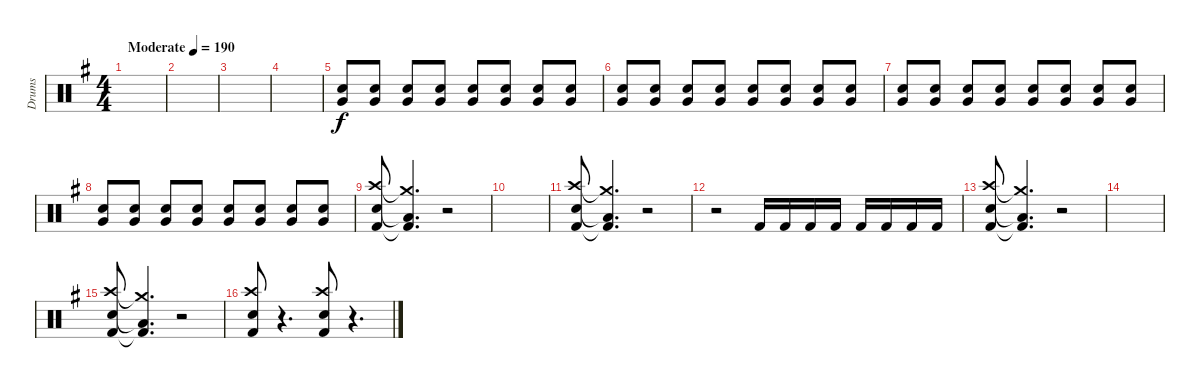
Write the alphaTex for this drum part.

\track ("Drums" "Drums") {instrument percussion}
\staff {score}
\articulation defaults
\ts (4 4)
\tempo (190 "Moderate")
\clef neutral
\ks eminor
|
|
|
|
("Electric Snare (hit)" "Very Low Tom (hit)").8{volume 16} ("Electric Snare (hit)" "Very Low Tom (hit)").8 ("Electric Snare (hit)" "Very Low Tom (hit)").8 ("Electric Snare (hit)" "Very Low Tom (hit)").8 ("Electric Snare (hit)" "Very Low Tom (hit)").8 ("Electric Snare (hit)" "Very Low Tom (hit)").8 ("Electric Snare (hit)" "Very Low Tom (hit)").8 ("Electric Snare (hit)" "Very Low Tom (hit)").8 |
("Electric Snare (hit)" "Very Low Tom (hit)").8 ("Electric Snare (hit)" "Very Low Tom (hit)").8 ("Electric Snare (hit)" "Very Low Tom (hit)").8 ("Electric Snare (hit)" "Very Low Tom (hit)").8 ("Electric Snare (hit)" "Very Low Tom (hit)").8 ("Electric Snare (hit)" "Very Low Tom (hit)").8 ("Electric Snare (hit)" "Very Low Tom (hit)").8 ("Electric Snare (hit)" "Very Low Tom (hit)").8 |
("Electric Snare (hit)" "Very Low Tom (hit)").8 ("Electric Snare (hit)" "Very Low Tom (hit)").8 ("Electric Snare (hit)" "Very Low Tom (hit)").8 ("Electric Snare (hit)" "Very Low Tom (hit)").8 ("Electric Snare (hit)" "Very Low Tom (hit)").8 ("Electric Snare (hit)" "Very Low Tom (hit)").8 ("Electric Snare (hit)" "Very Low Tom (hit)").8 ("Electric Snare (hit)" "Very Low Tom (hit)").8 |
("Electric Snare (hit)" "Very Low Tom (hit)").8 ("Electric Snare (hit)" "Very Low Tom (hit)").8 ("Electric Snare (hit)" "Very Low Tom (hit)").8 ("Electric Snare (hit)" "Very Low Tom (hit)").8 ("Electric Snare (hit)" "Very Low Tom (hit)").8 ("Electric Snare (hit)" "Very Low Tom (hit)").8 ("Electric Snare (hit)" "Very Low Tom (hit)").8 ("Electric Snare (hit)" "Very Low Tom (hit)").8 |
("Crash high (hit)" "Electric Snare (hit)" "Kick (hit) 2").8 ("Crash medium (hit)"{t} "Low Floor Tom (hit)"{t} "Kick (hit) 2"{t}).4{d volume 0} r.2 |
|
("Crash high (hit)" "Electric Snare (hit)" "Kick (hit) 2").8{volume 16} ("Crash medium (hit)"{t} "Low Floor Tom (hit)"{t} "Kick (hit) 2"{t}).4{d volume 0} r.2 |
r.2 "Kick (hit) 2".16{volume 16} "Kick (hit) 2".16 "Kick (hit) 2".16 "Kick (hit) 2".16 "Kick (hit) 2".16 "Kick (hit) 2".16 "Kick (hit) 2".16 "Kick (hit) 2".16 |
("Crash high (hit)" "Electric Snare (hit)" "Kick (hit) 2").8 ("Crash medium (hit)"{t} "Low Floor Tom (hit)"{t} "Kick (hit) 2"{t}).4{d volume 0} r.2 |
|
("Crash high (hit)" "Electric Snare (hit)" "Kick (hit) 2").8{volume 16} ("Crash medium (hit)"{t} "Low Floor Tom (hit)"{t} "Kick (hit) 2"{t}).4{d volume 0} r.2 |
("Crash high (hit)" "Electric Snare (hit)" "Kick (hit) 2").8{volume 16} r.4{d volume 0} ("Crash high (hit)" "Electric Snare (hit)" "Kick (hit) 2").8{volume 16} r.4{d volume 0}
